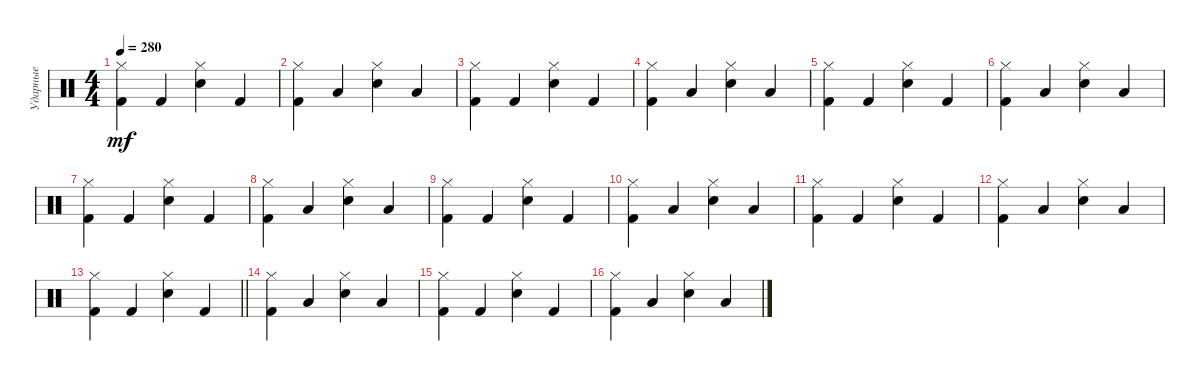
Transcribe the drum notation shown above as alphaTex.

\track ("Ударные" "Ударные") {instrument percussion}
\staff {score}
\articulation defaults
\ts (4 4)
\tempo 280
\clef neutral
\ks c
("Kick (hit) 2" "Hi-Hat (closed)").4{dy mf} "Kick (hit) 2".4 ("Snare (hit) 2" "Hi-Hat (closed)").4 "Kick (hit) 2".4 |
("Kick (hit) 2" "Hi-Hat (closed)").4 "Low Floor Tom (hit)".4 ("Snare (hit) 2" "Hi-Hat (closed)").4 "Low Floor Tom (hit)".4 |
("Kick (hit) 2" "Hi-Hat (closed)").4 "Kick (hit) 2".4 ("Snare (hit) 2" "Hi-Hat (closed)").4 "Kick (hit) 2".4 |
("Kick (hit) 2" "Hi-Hat (closed)").4 "Low Floor Tom (hit)".4 ("Snare (hit) 2" "Hi-Hat (closed)").4 "Low Floor Tom (hit)".4 |
("Kick (hit) 2" "Hi-Hat (closed)").4 "Kick (hit) 2".4 ("Snare (hit) 2" "Hi-Hat (closed)").4 "Kick (hit) 2".4 |
("Kick (hit) 2" "Hi-Hat (closed)").4 "Low Floor Tom (hit)".4 ("Snare (hit) 2" "Hi-Hat (closed)").4 "Low Floor Tom (hit)".4 |
("Kick (hit) 2" "Hi-Hat (closed)").4 "Kick (hit) 2".4 ("Snare (hit) 2" "Hi-Hat (closed)").4 "Kick (hit) 2".4 |
("Kick (hit) 2" "Hi-Hat (closed)").4 "Low Floor Tom (hit)".4 ("Snare (hit) 2" "Hi-Hat (closed)").4 "Low Floor Tom (hit)".4 |
("Kick (hit) 2" "Hi-Hat (closed)").4 "Kick (hit) 2".4 ("Snare (hit) 2" "Hi-Hat (closed)").4 "Kick (hit) 2".4 |
("Kick (hit) 2" "Hi-Hat (closed)").4 "Low Floor Tom (hit)".4 ("Snare (hit) 2" "Hi-Hat (closed)").4 "Low Floor Tom (hit)".4 |
("Kick (hit) 2" "Hi-Hat (closed)").4 "Kick (hit) 2".4 ("Snare (hit) 2" "Hi-Hat (closed)").4 "Kick (hit) 2".4 |
("Kick (hit) 2" "Hi-Hat (closed)").4 "Low Floor Tom (hit)".4 ("Snare (hit) 2" "Hi-Hat (closed)").4 "Low Floor Tom (hit)".4 |
\barLineRight lightlight
("Kick (hit) 2" "Hi-Hat (closed)").4 "Kick (hit) 2".4 ("Snare (hit) 2" "Hi-Hat (closed)").4 "Kick (hit) 2".4 |
("Kick (hit) 2" "Hi-Hat (closed)").4 "Low Floor Tom (hit)".4 ("Snare (hit) 2" "Hi-Hat (closed)").4 "Low Floor Tom (hit)".4 |
("Kick (hit) 2" "Hi-Hat (closed)").4 "Kick (hit) 2".4 ("Snare (hit) 2" "Hi-Hat (closed)").4 "Kick (hit) 2".4 |
("Kick (hit) 2" "Hi-Hat (closed)").4 "Low Floor Tom (hit)".4 ("Snare (hit) 2" "Hi-Hat (closed)").4 "Low Floor Tom (hit)".4
